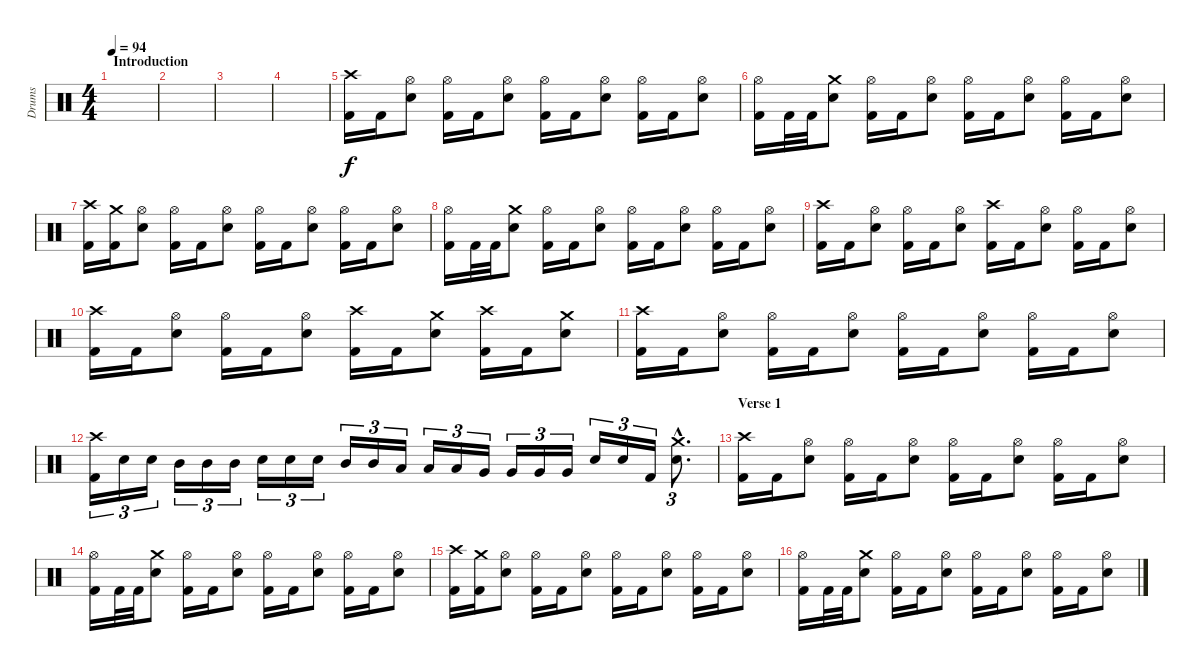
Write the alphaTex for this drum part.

\track ("Drums" "Drums") {instrument percussion}
\staff {score}
\articulation defaults
\ts (4 4)
\section ("" "Introduction")
\tempo 94
\clef neutral
\ks c
|
|
|
|
("Crash high (hit)" "Kick (hit) 2").16 "Kick (hit) 2".16 ("Hi-Hat (open)" "Snare (hit) 2").8 ("Hi-Hat (open)" "Kick (hit) 2").16 "Kick (hit) 2".16 ("Hi-Hat (open)" "Snare (hit) 2").8 ("Hi-Hat (open)" "Kick (hit) 2").16 "Kick (hit) 2".16 ("Hi-Hat (open)" "Snare (hit) 2").8 ("Hi-Hat (open)" "Kick (hit) 2").16 "Kick (hit) 2".16 ("Hi-Hat (open)" "Snare (hit) 2").8 |
("Hi-Hat (open)" "Kick (hit) 2").16 "Kick (hit) 2".32 "Kick (hit) 2".32 ("Crash medium (hit)" "Snare (hit) 2").8 ("Hi-Hat (open)" "Kick (hit) 2").16 "Kick (hit) 2".16 ("Hi-Hat (open)" "Snare (hit) 2").8 ("Hi-Hat (open)" "Kick (hit) 2").16 "Kick (hit) 2".16 ("Hi-Hat (open)" "Snare (hit) 2").8 ("Hi-Hat (open)" "Kick (hit) 2").16 "Kick (hit) 2".16 ("Hi-Hat (open)" "Snare (hit) 2").8 |
("Crash high (hit)" "Kick (hit) 2").16 ("Crash medium (hit)" "Kick (hit) 2").16 ("Hi-Hat (open)" "Snare (hit) 2").8 ("Hi-Hat (open)" "Kick (hit) 2").16 "Kick (hit) 2".16 ("Hi-Hat (open)" "Snare (hit) 2").8 ("Hi-Hat (open)" "Kick (hit) 2").16 "Kick (hit) 2".16 ("Hi-Hat (open)" "Snare (hit) 2").8 ("Hi-Hat (open)" "Kick (hit) 2").16 "Kick (hit) 2".16 ("Hi-Hat (open)" "Snare (hit) 2").8 |
("Hi-Hat (open)" "Kick (hit) 2").16 "Kick (hit) 2".32 "Kick (hit) 2".32 ("Crash medium (hit)" "Snare (hit) 2").8 ("Hi-Hat (open)" "Kick (hit) 2").16 "Kick (hit) 2".16 ("Hi-Hat (open)" "Snare (hit) 2").8 ("Hi-Hat (open)" "Kick (hit) 2").16 "Kick (hit) 2".16 ("Hi-Hat (open)" "Snare (hit) 2").8 ("Hi-Hat (open)" "Kick (hit) 2").16 "Kick (hit) 2".16 ("Hi-Hat (open)" "Snare (hit) 2").8 |
("Crash high (hit)" "Kick (hit) 2").16 "Kick (hit) 2".16 ("Hi-Hat (open)" "Snare (hit) 2").8 ("Hi-Hat (open)" "Kick (hit) 2").16 "Kick (hit) 2".16 ("Hi-Hat (open)" "Snare (hit) 2").8 ("Crash high (hit)" "Kick (hit) 2").16 "Kick (hit) 2".16 ("Hi-Hat (open)" "Snare (hit) 2").8 ("Hi-Hat (open)" "Kick (hit) 2").16 "Kick (hit) 2".16 ("Hi-Hat (open)" "Snare (hit) 2").8 |
("Crash high (hit)" "Kick (hit) 2").16 "Kick (hit) 2".16 ("Hi-Hat (open)" "Snare (hit) 2").8 ("Hi-Hat (open)" "Kick (hit) 2").16 "Kick (hit) 2".16 ("Hi-Hat (open)" "Snare (hit) 2").8 ("Crash high (hit)" "Kick (hit) 2").16 "Kick (hit) 2".16 ("Crash medium (hit)" "Snare (hit) 2").8 ("Crash high (hit)" "Kick (hit) 2").16 "Kick (hit) 2".16 ("Crash medium (hit)" "Snare (hit) 2").8 |
("Crash high (hit)" "Kick (hit) 2").16 "Kick (hit) 2".16 ("Hi-Hat (open)" "Snare (hit) 2").8 ("Hi-Hat (open)" "Kick (hit) 2").16 "Kick (hit) 2".16 ("Hi-Hat (open)" "Snare (hit) 2").8 ("Hi-Hat (open)" "Kick (hit) 2").16 "Kick (hit) 2".16 ("Hi-Hat (open)" "Snare (hit) 2").8 ("Hi-Hat (open)" "Kick (hit) 2").16 "Kick (hit) 2".16 ("Hi-Hat (open)" "Snare (hit) 2").8 |
("Crash high (hit)" "Kick (hit) 2").16{tu (3 2)} "Snare (hit) 2".16{tu (3 2)} "Snare (hit) 2".16{tu (3 2)} "Mid Tom (hit)".16{tu (3 2)} "Mid Tom (hit)".16{tu (3 2)} "Mid Tom (hit)".16{tu (3 2)} "Snare (hit) 2".16{tu (3 2)} "Snare (hit) 2".16{tu (3 2)} "Snare (hit) 2".16{tu (3 2)} "Mid Tom (hit)".16{tu (3 2)} "Mid Tom (hit)".16{tu (3 2)} "Low Tom (hit)".16{tu (3 2)} "Low Tom (hit)".16{tu (3 2)} "Low Tom (hit)".16{tu (3 2)} "Very Low Tom (hit)".16{tu (3 2)} "Very Low Tom (hit)".16{tu (3 2)} "Very Low Tom (hit)".16{tu (3 2)} "Very Low Tom (hit)".16{tu (3 2)} "Snare (hit) 2".16{tu (3 2)} "Snare (hit) 2".16{tu (3 2)} "Kick (hit) 2".16{tu (3 2)} ("Crash medium (hit)"{hac} "Snare (hit) 2"{hac}).8{d tu (3 2)} |
\section ("" "Verse 1")
("Crash high (hit)" "Kick (hit) 2").16 "Kick (hit) 2".16 ("Hi-Hat (open)" "Snare (hit) 2").8 ("Hi-Hat (open)" "Kick (hit) 2").16 "Kick (hit) 2".16 ("Hi-Hat (open)" "Snare (hit) 2").8 ("Hi-Hat (open)" "Kick (hit) 2").16 "Kick (hit) 2".16 ("Hi-Hat (open)" "Snare (hit) 2").8 ("Hi-Hat (open)" "Kick (hit) 2").16 "Kick (hit) 2".16 ("Hi-Hat (open)" "Snare (hit) 2").8 |
("Hi-Hat (open)" "Kick (hit) 2").16 "Kick (hit) 2".32 "Kick (hit) 2".32 ("Crash medium (hit)" "Snare (hit) 2").8 ("Hi-Hat (open)" "Kick (hit) 2").16 "Kick (hit) 2".16 ("Hi-Hat (open)" "Snare (hit) 2").8 ("Hi-Hat (open)" "Kick (hit) 2").16 "Kick (hit) 2".16 ("Hi-Hat (open)" "Snare (hit) 2").8 ("Hi-Hat (open)" "Kick (hit) 2").16 "Kick (hit) 2".16 ("Hi-Hat (open)" "Snare (hit) 2").8 |
("Crash high (hit)" "Kick (hit) 2").16 ("Crash medium (hit)" "Kick (hit) 2").16 ("Hi-Hat (open)" "Snare (hit) 2").8 ("Hi-Hat (open)" "Kick (hit) 2").16 "Kick (hit) 2".16 ("Hi-Hat (open)" "Snare (hit) 2").8 ("Hi-Hat (open)" "Kick (hit) 2").16 "Kick (hit) 2".16 ("Hi-Hat (open)" "Snare (hit) 2").8 ("Hi-Hat (open)" "Kick (hit) 2").16 "Kick (hit) 2".16 ("Hi-Hat (open)" "Snare (hit) 2").8 |
("Hi-Hat (open)" "Kick (hit) 2").16 "Kick (hit) 2".32 "Kick (hit) 2".32 ("Crash medium (hit)" "Snare (hit) 2").8 ("Hi-Hat (open)" "Kick (hit) 2").16 "Kick (hit) 2".16 ("Hi-Hat (open)" "Snare (hit) 2").8 ("Hi-Hat (open)" "Kick (hit) 2").16 "Kick (hit) 2".16 ("Hi-Hat (open)" "Snare (hit) 2").8 ("Hi-Hat (open)" "Kick (hit) 2").16 "Kick (hit) 2".16 ("Hi-Hat (open)" "Snare (hit) 2").8
